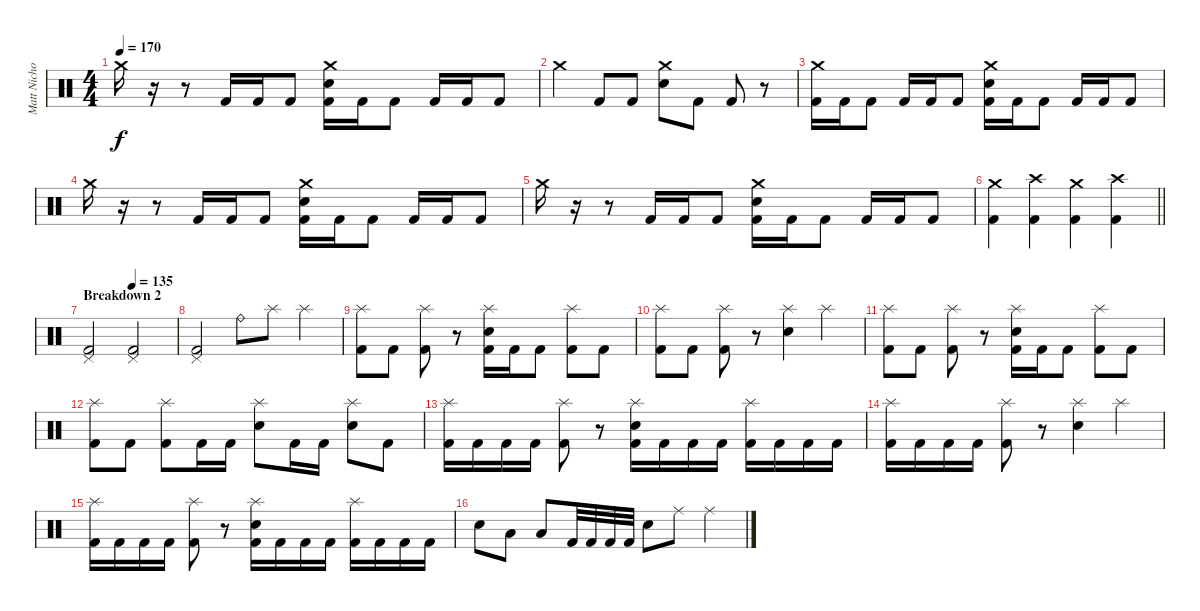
\track ("Matt Nicholls" "Matt Nicho") {instrument percussion}
\staff {score}
\articulation defaults
\ts (4 4)
\tempo 170
\clef neutral
\ks c "Crash medium (hit)".16{dy f}
r.16 r.8 "Kick (hit) 2".16 "Kick (hit) 2".16 "Kick (hit) 2".8 ("Crash medium (hit)" "Snare (hit) 2" "Kick (hit) 2").16 "Kick (hit) 2".16 "Kick (hit) 2".8 "Kick (hit) 2".16 "Kick (hit) 2".16 "Kick (hit) 2".8 |
"Crash medium (hit)".4 "Kick (hit) 2".8 "Kick (hit) 2".8 ("Crash medium (hit)" "Snare (hit) 2").8 "Kick (hit) 2".8 "Kick (hit) 2".8 r.8 |
("Crash medium (hit)" "Kick (hit) 2").16 "Kick (hit) 2".16 "Kick (hit) 2".8 "Kick (hit) 2".16 "Kick (hit) 2".16 "Kick (hit) 2".8 ("Crash medium (hit)" "Snare (hit) 2" "Kick (hit) 2").16 "Kick (hit) 2".16 "Kick (hit) 2".8 "Kick (hit) 2".16 "Kick (hit) 2".16 "Kick (hit) 2".8 |
"Crash medium (hit)".16 r.16 r.8 "Kick (hit) 2".16 "Kick (hit) 2".16 "Kick (hit) 2".8 ("Crash medium (hit)" "Snare (hit) 2" "Kick (hit) 2").16 "Kick (hit) 2".16 "Kick (hit) 2".8 "Kick (hit) 2".16 "Kick (hit) 2".16 "Kick (hit) 2".8 |
"Crash medium (hit)".16 r.16 r.8 "Kick (hit) 2".16 "Kick (hit) 2".16 "Kick (hit) 2".8 ("Crash medium (hit)" "Snare (hit) 2" "Kick (hit) 2").16 "Kick (hit) 2".16 "Kick (hit) 2".8 "Kick (hit) 2".16 "Kick (hit) 2".16 "Kick (hit) 2".8 |
\barLineRight lightlight
("Crash medium (hit)" "Kick (hit) 2").4 ("Crash high (hit)" "Kick (hit) 2").4 ("Crash medium (hit)" "Kick (hit) 2").4 ("Crash high (hit)" "Kick (hit) 2").4 |
\section ("" "Breakdown 2")
\tempo (135 0.5)
("Pedal Hi-Hat (hit)" "Kick (hit) 2").2 ("Pedal Hi-Hat (hit)" "Kick (hit) 2").2 |
("Pedal Hi-Hat (hit)" "Kick (hit) 2").2 "Ride (bell)".8 "Splash (hit)".8 "Splash (hit)".4 |
("Splash (hit)" "Kick (hit) 2").8 "Kick (hit) 2".8 ("Splash (hit)" "Kick (hit) 2").8 r.8 ("Splash (hit)" "Snare (hit) 2" "Kick (hit) 2").16 "Kick (hit) 2".16 "Kick (hit) 2".8 ("Splash (hit)" "Kick (hit) 2").8 "Kick (hit) 2".8 |
("Splash (hit)" "Kick (hit) 2").8 "Kick (hit) 2".8 ("Splash (hit)" "Kick (hit) 2").8 r.8 ("Splash (hit)" "Snare (hit) 2").4 "Splash (hit)".4 |
("Splash (hit)" "Kick (hit) 2").8 "Kick (hit) 2".8 ("Splash (hit)" "Kick (hit) 2").8 r.8 ("Splash (hit)" "Snare (hit) 2" "Kick (hit) 2").16 "Kick (hit) 2".16 "Kick (hit) 2".8 ("Splash (hit)" "Kick (hit) 2").8 "Kick (hit) 2".8 |
("Splash (hit)" "Kick (hit) 2").8 "Kick (hit) 2".8 ("Splash (hit)" "Kick (hit) 2").8 "Kick (hit) 2".16 "Kick (hit) 2".16 ("Splash (hit)" "Snare (hit) 2").8 "Kick (hit) 2".16 "Kick (hit) 2".16 ("Splash (hit)" "Snare (hit) 2").8 "Kick (hit) 2".8 |
("Splash (hit)" "Kick (hit) 2").16 "Kick (hit) 2".16 "Kick (hit) 2".16 "Kick (hit) 2".16 ("Splash (hit)" "Kick (hit) 2").8 r.8 ("Splash (hit)" "Snare (hit) 2" "Kick (hit) 2").16 "Kick (hit) 2".16 "Kick (hit) 2".16 "Kick (hit) 2".16 ("Splash (hit)" "Kick (hit) 2").16 "Kick (hit) 2".16 "Kick (hit) 2".16 "Kick (hit) 2".16 |
("Splash (hit)" "Kick (hit) 2").16 "Kick (hit) 2".16 "Kick (hit) 2".16 "Kick (hit) 2".16 ("Splash (hit)" "Kick (hit) 2").8 r.8 ("Splash (hit)" "Snare (hit) 2").4 "Splash (hit)".4 |
("Splash (hit)" "Kick (hit) 2").16 "Kick (hit) 2".16 "Kick (hit) 2".16 "Kick (hit) 2".16 ("Splash (hit)" "Kick (hit) 2").8 r.8 ("Splash (hit)" "Snare (hit) 2" "Kick (hit) 2").16 "Kick (hit) 2".16 "Kick (hit) 2".16 "Kick (hit) 2".16 ("Splash (hit)" "Kick (hit) 2").16 "Kick (hit) 2".16 "Kick (hit) 2".16 "Kick (hit) 2".16 |
"Snare (hit) 2".8 "Low Tom (hit)".8 "Low Floor Tom (hit)".8 "Kick (hit) 2".32 "Kick (hit) 2".32 "Kick (hit) 2".32 "Kick (hit) 2".32 "Snare (hit) 2".8 "Ride (middle)".8 "Ride (middle)".4
